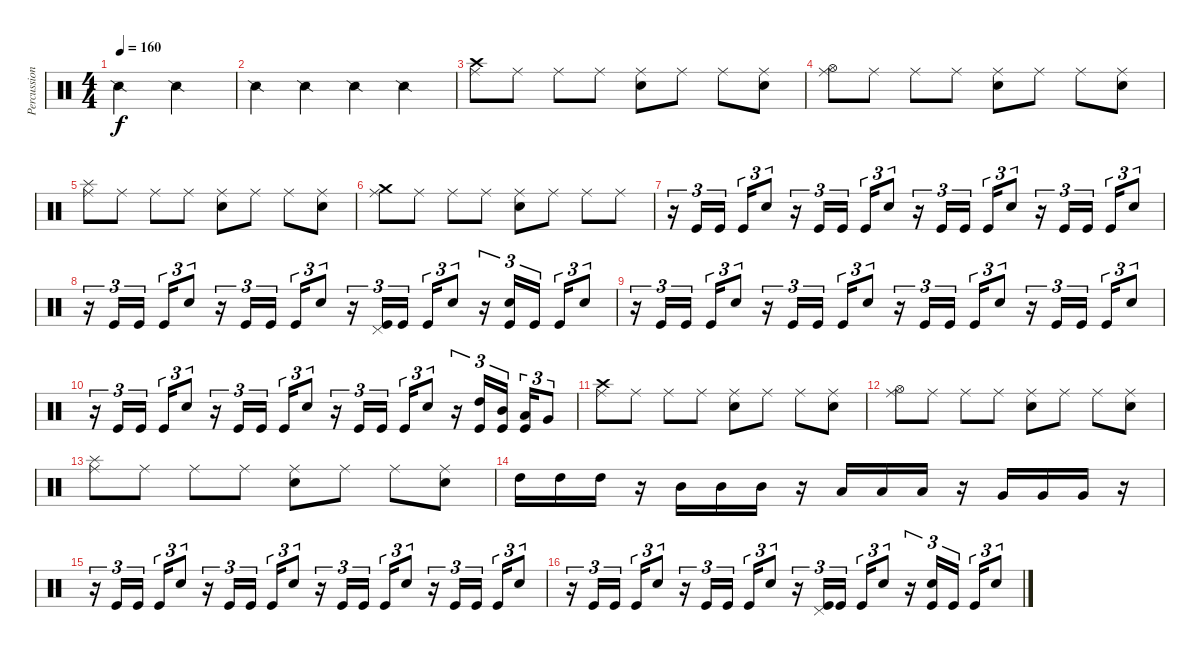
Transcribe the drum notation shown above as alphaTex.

\track ("Percussion" "Percussion") {instrument percussion}
\staff {score}
\articulation defaults
\ts (4 4)
\tempo 160
\clef neutral
\ks c "Snare (side stick) 2".2{dy f} "Snare (side stick) 2".2
|
"Snare (side stick) 2".4 "Snare (side stick) 2".4 "Snare (side stick) 2".4 "Snare (side stick) 2".4 |
("Crash high (hit)" "Ride (middle)").8 "Ride (middle)".8 "Ride (middle)".8 "Ride (middle)".8 ("Snare (hit) 2" "Ride (middle)").8 "Ride (middle)".8 "Ride (middle)".8 ("Snare (hit) 2" "Ride (middle)").8 |
("Hi-Hat (open)" "Ride (middle)").8 "Ride (middle)".8 "Ride (middle)".8 "Ride (middle)".8 ("Snare (hit) 2" "Ride (middle)").8 "Ride (middle)".8 "Ride (middle)".8 ("Snare (hit) 2" "Ride (middle)").8 |
("Splash (hit)" "Ride (middle)").8 "Ride (middle)".8 "Ride (middle)".8 "Ride (middle)".8 ("Snare (hit) 2" "Ride (middle)").8 "Ride (middle)".8 "Ride (middle)".8 ("Snare (hit) 2" "Ride (middle)").8 |
("Crash medium (hit)" "Ride (middle)").8 "Ride (middle)".8 "Ride (middle)".8 "Ride (middle)".8 ("Snare (hit) 2" "Ride (middle)").8 "Ride (middle)".8 "Ride (middle)".8 "Ride (middle)".8 |
r.16{tu (3 2)} "Kick (hit)".16{tu (3 2)} "Kick (hit)".16{tu (3 2)} "Kick (hit)".16{tu (3 2)} "Snare (hit) 2".8{tu (3 2)} r.16{tu (3 2)} "Kick (hit)".16{tu (3 2)} "Kick (hit)".16{tu (3 2)} "Kick (hit)".16{tu (3 2)} "Snare (hit) 2".8{tu (3 2)} r.16{tu (3 2)} "Kick (hit)".16{tu (3 2)} "Kick (hit)".16{tu (3 2)} "Kick (hit)".16{tu (3 2)} "Snare (hit) 2".8{tu (3 2)} r.16{tu (3 2)} "Kick (hit)".16{tu (3 2)} "Kick (hit)".16{tu (3 2)} "Kick (hit)".16{tu (3 2)} "Snare (hit) 2".8{tu (3 2)} |
r.16{tu (3 2)} "Kick (hit)".16{tu (3 2)} "Kick (hit)".16{tu (3 2)} "Kick (hit)".16{tu (3 2)} "Snare (hit) 2".8{tu (3 2)} r.16{tu (3 2)} "Kick (hit)".16{tu (3 2)} "Kick (hit)".16{tu (3 2)} "Kick (hit)".16{tu (3 2)} "Snare (hit) 2".8{tu (3 2)} r.16{tu (3 2)} ("Pedal Hi-Hat (hit)" "Kick (hit)").16{tu (3 2)} "Kick (hit)".16{tu (3 2)} "Kick (hit)".16{tu (3 2)} "Snare (hit) 2".8{tu (3 2)} r.16{tu (3 2)} ("Snare (hit) 2" "Kick (hit)").16{tu (3 2)} "Kick (hit)".16{tu (3 2)} "Kick (hit)".16{tu (3 2)} "Snare (hit) 2".8{tu (3 2)} |
r.16{tu (3 2)} "Kick (hit)".16{tu (3 2)} "Kick (hit)".16{tu (3 2)} "Kick (hit)".16{tu (3 2)} "Snare (hit) 2".8{tu (3 2)} r.16{tu (3 2)} "Kick (hit)".16{tu (3 2)} "Kick (hit)".16{tu (3 2)} "Kick (hit)".16{tu (3 2)} "Snare (hit) 2".8{tu (3 2)} r.16{tu (3 2)} "Kick (hit)".16{tu (3 2)} "Kick (hit)".16{tu (3 2)} "Kick (hit)".16{tu (3 2)} "Snare (hit) 2".8{tu (3 2)} r.16{tu (3 2)} "Kick (hit)".16{tu (3 2)} "Kick (hit)".16{tu (3 2)} "Kick (hit)".16{tu (3 2)} "Snare (hit) 2".8{tu (3 2)} |
r.16{tu (3 2)} "Kick (hit)".16{tu (3 2)} "Kick (hit)".16{tu (3 2)} "Kick (hit)".16{tu (3 2)} "Snare (hit) 2".8{tu (3 2)} r.16{tu (3 2)} "Kick (hit)".16{tu (3 2)} "Kick (hit)".16{tu (3 2)} "Kick (hit)".16{tu (3 2)} "Snare (hit) 2".8{tu (3 2)} r.16{tu (3 2)} "Kick (hit)".16{tu (3 2)} "Kick (hit)".16{tu (3 2)} "Kick (hit)".16{tu (3 2)} "Snare (hit) 2".8{tu (3 2)} r.16{tu (3 2)} ("Kick (hit)" "High Tom (hit)").16{tu (3 2)} ("Kick (hit)" "Mid Tom (hit)").16{tu (3 2)} ("Kick (hit)" "Low Tom (hit)").16{tu (3 2)} "Very Low Tom (hit)".8{tu (3 2)} |
("Crash high (hit)" "Ride (middle)").8 "Ride (middle)".8 "Ride (middle)".8 "Ride (middle)".8 ("Snare (hit) 2" "Ride (middle)").8 "Ride (middle)".8 "Ride (middle)".8 ("Snare (hit) 2" "Ride (middle)").8 |
("Hi-Hat (open)" "Ride (middle)").8 "Ride (middle)".8 "Ride (middle)".8 "Ride (middle)".8 ("Snare (hit) 2" "Ride (middle)").8 "Ride (middle)".8 "Ride (middle)".8 ("Snare (hit) 2" "Ride (middle)").8 |
("Splash (hit)" "Ride (middle)").8 "Ride (middle)".8 "Ride (middle)".8 "Ride (middle)".8 ("Snare (hit) 2" "Ride (middle)").8 "Ride (middle)".8 "Ride (middle)".8 ("Snare (hit) 2" "Ride (middle)").8 |
"High Tom (hit)".16 "High Tom (hit)".16 "High Tom (hit)".16 r.16 "Mid Tom (hit)".16 "Mid Tom (hit)".16 "Mid Tom (hit)".16 r.16 "Low Tom (hit)".16 "Low Tom (hit)".16 "Low Tom (hit)".16 r.16 "Very Low Tom (hit)".16 "Very Low Tom (hit)".16 "Very Low Tom (hit)".16 r.16 |
r.16{tu (3 2)} "Kick (hit)".16{tu (3 2)} "Kick (hit)".16{tu (3 2)} "Kick (hit)".16{tu (3 2)} "Snare (hit) 2".8{tu (3 2)} r.16{tu (3 2)} "Kick (hit)".16{tu (3 2)} "Kick (hit)".16{tu (3 2)} "Kick (hit)".16{tu (3 2)} "Snare (hit) 2".8{tu (3 2)} r.16{tu (3 2)} "Kick (hit)".16{tu (3 2)} "Kick (hit)".16{tu (3 2)} "Kick (hit)".16{tu (3 2)} "Snare (hit) 2".8{tu (3 2)} r.16{tu (3 2)} "Kick (hit)".16{tu (3 2)} "Kick (hit)".16{tu (3 2)} "Kick (hit)".16{tu (3 2)} "Snare (hit) 2".8{tu (3 2)} |
r.16{tu (3 2)} "Kick (hit)".16{tu (3 2)} "Kick (hit)".16{tu (3 2)} "Kick (hit)".16{tu (3 2)} "Snare (hit) 2".8{tu (3 2)} r.16{tu (3 2)} "Kick (hit)".16{tu (3 2)} "Kick (hit)".16{tu (3 2)} "Kick (hit)".16{tu (3 2)} "Snare (hit) 2".8{tu (3 2)} r.16{tu (3 2)} ("Pedal Hi-Hat (hit)" "Kick (hit)").16{tu (3 2)} "Kick (hit)".16{tu (3 2)} "Kick (hit)".16{tu (3 2)} "Snare (hit) 2".8{tu (3 2)} r.16{tu (3 2)} ("Snare (hit) 2" "Kick (hit)").16{tu (3 2)} "Kick (hit)".16{tu (3 2)} "Kick (hit)".16{tu (3 2)} "Snare (hit) 2".8{tu (3 2)}
